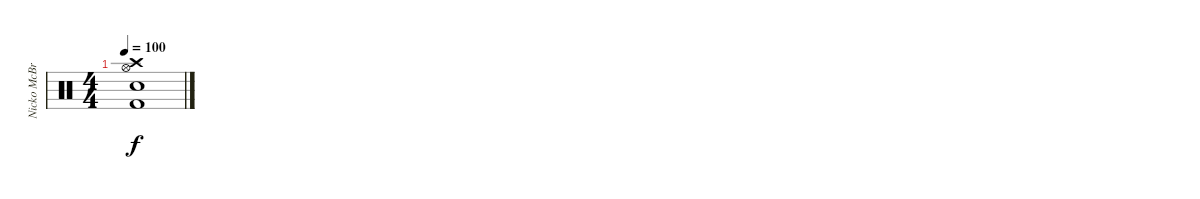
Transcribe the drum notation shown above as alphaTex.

\track ("Nicko McBrain" "Nicko McBr") {instrument percussion}
\staff {score}
\articulation defaults
\ts (4 4)
\tempo 100
\clef neutral
\ks c
("Snare (hit) 2" "Kick (hit) 2" "Hi-Hat (open)" "Crash high (hit)").1{dy f}
